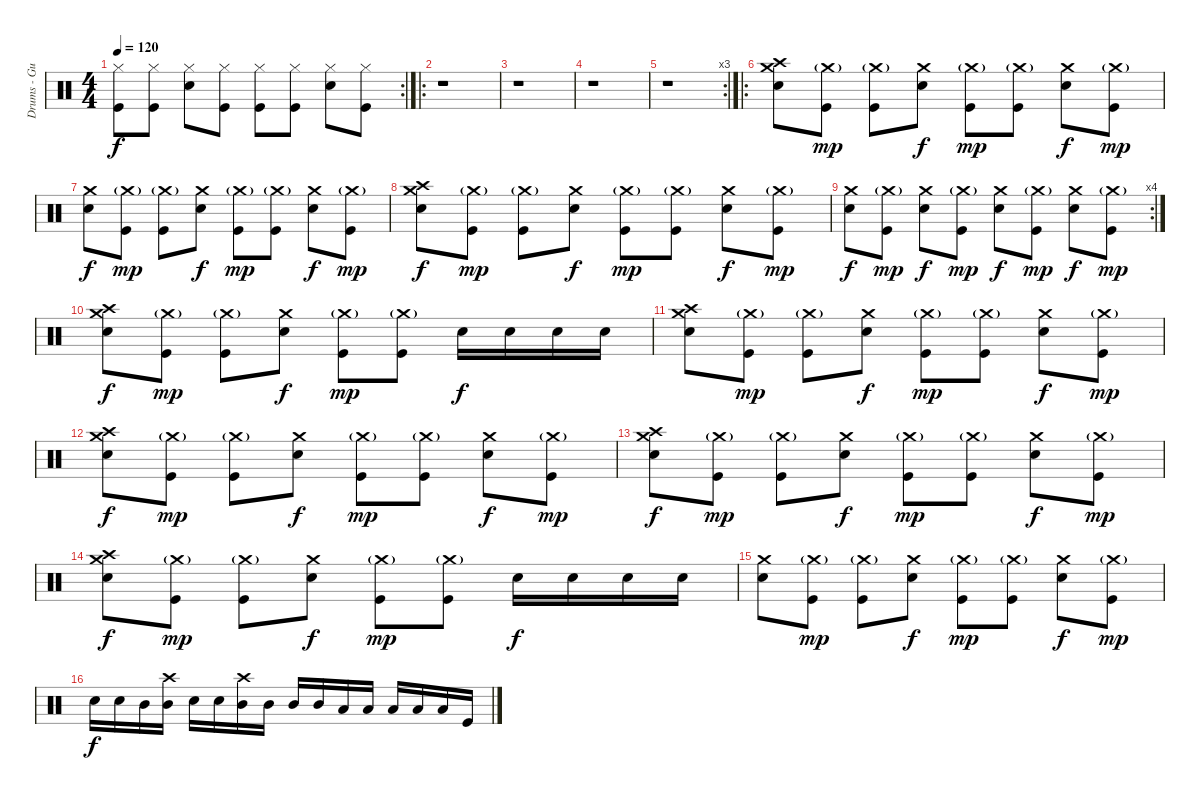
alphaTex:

\track ("Drums - Gustav" "Drums - Gu") {instrument percussion}
\staff {score}
\articulation defaults
\rc 2
\ts (4 4)
\tempo 120
\clef neutral
\ks c
("Kick (hit)" "Hi-Hat (closed)").8{dy f} ("Kick (hit)" "Hi-Hat (closed)").8 ("Hi-Hat (closed)" "Snare (hit) 2").8 ("Kick (hit)" "Hi-Hat (closed)").8 ("Kick (hit)" "Hi-Hat (closed)").8 ("Kick (hit)" "Hi-Hat (closed)").8 ("Hi-Hat (closed)" "Snare (hit) 2").8 ("Kick (hit)" "Hi-Hat (closed)").8 |
\ro
r.1 |
r.1 |
r.1 |
\rc 3
r.1{volume 0} |
\ro
("Snare (hit) 2" "Crash high (hit)" "Crash medium (hit)").8 ("Kick (hit)" "Crash medium (hit)"{g}).8{dy mp} ("Kick (hit)" "Crash medium (hit)"{g}).8 ("Snare (hit) 2" "Crash medium (hit)").8{dy f} ("Kick (hit)" "Crash medium (hit)"{g}).8{dy mp} ("Kick (hit)" "Crash medium (hit)"{g}).8 ("Snare (hit) 2" "Crash medium (hit)").8{dy f} ("Kick (hit)" "Crash medium (hit)"{g}).8{dy mp} |
("Snare (hit) 2" "Crash medium (hit)").8{dy f} ("Kick (hit)" "Crash medium (hit)"{g}).8{dy mp} ("Kick (hit)" "Crash medium (hit)"{g}).8 ("Snare (hit) 2" "Crash medium (hit)").8{dy f} ("Kick (hit)" "Crash medium (hit)"{g}).8{dy mp} ("Kick (hit)" "Crash medium (hit)"{g}).8 ("Snare (hit) 2" "Crash medium (hit)").8{dy f} ("Kick (hit)" "Crash medium (hit)"{g}).8{dy mp} |
("Snare (hit) 2" "Crash high (hit)" "Crash medium (hit)").8{dy f} ("Kick (hit)" "Crash medium (hit)"{g}).8{dy mp} ("Kick (hit)" "Crash medium (hit)"{g}).8 ("Snare (hit) 2" "Crash medium (hit)").8{dy f} ("Kick (hit)" "Crash medium (hit)"{g}).8{dy mp} ("Kick (hit)" "Crash medium (hit)"{g}).8 ("Snare (hit) 2" "Crash medium (hit)").8{dy f} ("Kick (hit)" "Crash medium (hit)"{g}).8{dy mp} |
\rc 4
("Snare (hit) 2" "Crash medium (hit)").8{dy f} ("Kick (hit)" "Crash medium (hit)"{g}).8{dy mp} ("Snare (hit) 2" "Crash medium (hit)").8{dy f} ("Kick (hit)" "Crash medium (hit)"{g}).8{dy mp} ("Snare (hit) 2" "Crash medium (hit)").8{dy f} ("Kick (hit)" "Crash medium (hit)"{g}).8{dy mp} ("Snare (hit) 2" "Crash medium (hit)").8{dy f} ("Kick (hit)" "Crash medium (hit)"{g}).8{dy mp} |
("Snare (hit) 2" "Crash high (hit)" "Crash medium (hit)").8{dy f} ("Kick (hit)" "Crash medium (hit)"{g}).8{dy mp} ("Kick (hit)" "Crash medium (hit)"{g}).8 ("Snare (hit) 2" "Crash medium (hit)").8{dy f} ("Kick (hit)" "Crash medium (hit)"{g}).8{dy mp} ("Kick (hit)" "Crash medium (hit)"{g}).8 "Snare (hit) 2".16{dy f} "Snare (hit) 2".16 "Snare (hit) 2".16 "Snare (hit) 2".16 |
("Snare (hit) 2" "Crash high (hit)" "Crash medium (hit)").8 ("Kick (hit)" "Crash medium (hit)"{g}).8{dy mp} ("Kick (hit)" "Crash medium (hit)"{g}).8 ("Snare (hit) 2" "Crash medium (hit)").8{dy f} ("Kick (hit)" "Crash medium (hit)"{g}).8{dy mp} ("Kick (hit)" "Crash medium (hit)"{g}).8 ("Snare (hit) 2" "Crash medium (hit)").8{dy f} ("Kick (hit)" "Crash medium (hit)"{g}).8{dy mp} |
("Snare (hit) 2" "Crash high (hit)" "Crash medium (hit)").8{dy f} ("Kick (hit)" "Crash medium (hit)"{g}).8{dy mp} ("Kick (hit)" "Crash medium (hit)"{g}).8 ("Snare (hit) 2" "Crash medium (hit)").8{dy f} ("Kick (hit)" "Crash medium (hit)"{g}).8{dy mp} ("Kick (hit)" "Crash medium (hit)"{g}).8 ("Snare (hit) 2" "Crash medium (hit)").8{dy f} ("Kick (hit)" "Crash medium (hit)"{g}).8{dy mp} |
("Snare (hit) 2" "Crash high (hit)" "Crash medium (hit)").8{dy f} ("Kick (hit)" "Crash medium (hit)"{g}).8{dy mp} ("Kick (hit)" "Crash medium (hit)"{g}).8 ("Snare (hit) 2" "Crash medium (hit)").8{dy f} ("Kick (hit)" "Crash medium (hit)"{g}).8{dy mp} ("Kick (hit)" "Crash medium (hit)"{g}).8 ("Snare (hit) 2" "Crash medium (hit)").8{dy f} ("Kick (hit)" "Crash medium (hit)"{g}).8{dy mp} |
("Snare (hit) 2" "Crash high (hit)" "Crash medium (hit)").8{dy f} ("Kick (hit)" "Crash medium (hit)"{g}).8{dy mp} ("Kick (hit)" "Crash medium (hit)"{g}).8 ("Snare (hit) 2" "Crash medium (hit)").8{dy f} ("Kick (hit)" "Crash medium (hit)"{g}).8{dy mp} ("Kick (hit)" "Crash medium (hit)"{g}).8 "Snare (hit) 2".16{dy f} "Snare (hit) 2".16 "Snare (hit) 2".16 "Snare (hit) 2".16 |
("Snare (hit) 2" "Crash medium (hit)").8 ("Kick (hit)" "Crash medium (hit)"{g}).8{dy mp} ("Kick (hit)" "Crash medium (hit)"{g}).8 ("Snare (hit) 2" "Crash medium (hit)").8{dy f} ("Kick (hit)" "Crash medium (hit)"{g}).8{dy mp} ("Kick (hit)" "Crash medium (hit)"{g}).8 ("Snare (hit) 2" "Crash medium (hit)").8{dy f} ("Kick (hit)" "Crash medium (hit)"{g}).8{dy mp} |
"Snare (hit) 2".16{dy f} "Snare (hit) 2".16 "Mid Tom (hit)".16 ("Mid Tom (hit)" "Crash high (hit)").16 "Snare (hit) 2".16 "Snare (hit) 2".16 ("Mid Tom (hit)" "Crash high (hit)").16 "Mid Tom (hit)".16 "Mid Tom (hit)".16 "Mid Tom (hit)".16 "Low Tom (hit)".16 "Low Tom (hit)".16 "Low Tom (hit)".16 "Low Tom (hit)".16 "Low Floor Tom (hit)".16 "Kick (hit)".16
